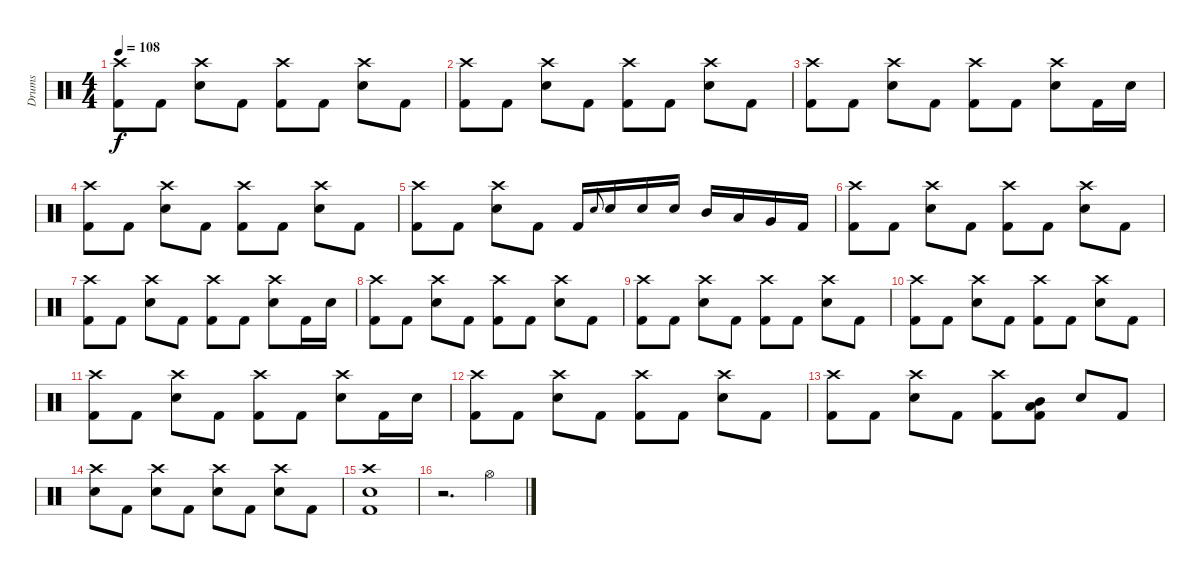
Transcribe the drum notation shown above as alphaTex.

\track ("Drums" "Drums") {instrument percussion}
\staff {score}
\articulation defaults
\ts (4 4)
\tempo 108
\clef neutral
\ks c
("Crash high (hit)" "Kick (hit) 2").8{dy f} "Kick (hit) 2".8 ("Crash high (hit)" "Electric Snare (hit)").8 "Kick (hit) 2".8 ("Crash high (hit)" "Kick (hit) 2").8 "Kick (hit) 2".8 ("Crash high (hit)" "Electric Snare (hit)").8 "Kick (hit) 2".8 |
("Crash high (hit)" "Kick (hit) 2").8 "Kick (hit) 2".8 ("Crash high (hit)" "Electric Snare (hit)").8 "Kick (hit) 2".8 ("Crash high (hit)" "Kick (hit) 2").8 "Kick (hit) 2".8 ("Crash high (hit)" "Electric Snare (hit)").8 "Kick (hit) 2".8 |
("Crash high (hit)" "Kick (hit) 2").8 "Kick (hit) 2".8 ("Crash high (hit)" "Electric Snare (hit)").8 "Kick (hit) 2".8 ("Crash high (hit)" "Kick (hit) 2").8 "Kick (hit) 2".8 ("Crash high (hit)" "Electric Snare (hit)").8 "Kick (hit) 2".16 "Electric Snare (hit)".16 |
("Crash high (hit)" "Kick (hit) 2").8 "Kick (hit) 2".8 ("Crash high (hit)" "Electric Snare (hit)").8 "Kick (hit) 2".8 ("Crash high (hit)" "Kick (hit) 2").8 "Kick (hit) 2".8 ("Crash high (hit)" "Electric Snare (hit)").8 "Kick (hit) 2".8 |
("Crash high (hit)" "Kick (hit) 2").8 "Kick (hit) 2".8 ("Crash high (hit)" "Electric Snare (hit)").8 "Kick (hit) 2".8 "Kick (hit) 2".16 "Electric Snare (hit)".8{gr onbeat} "Electric Snare (hit)".16 "Electric Snare (hit)".16 "Electric Snare (hit)".16 "Mid Tom (hit)".16 "Low Tom (hit)".16 "Very Low Tom (hit)".16 "Kick (hit) 2".16 |
("Crash high (hit)" "Kick (hit) 2").8 "Kick (hit) 2".8 ("Crash high (hit)" "Electric Snare (hit)").8 "Kick (hit) 2".8 ("Crash high (hit)" "Kick (hit) 2").8 "Kick (hit) 2".8 ("Crash high (hit)" "Electric Snare (hit)").8 "Kick (hit) 2".8 |
("Crash high (hit)" "Kick (hit) 2").8 "Kick (hit) 2".8 ("Crash high (hit)" "Electric Snare (hit)").8 "Kick (hit) 2".8 ("Crash high (hit)" "Kick (hit) 2").8 "Kick (hit) 2".8 ("Crash high (hit)" "Electric Snare (hit)").8 "Kick (hit) 2".16 "Electric Snare (hit)".16 |
("Crash high (hit)" "Kick (hit) 2").8 "Kick (hit) 2".8 ("Crash high (hit)" "Electric Snare (hit)").8 "Kick (hit) 2".8 ("Crash high (hit)" "Kick (hit) 2").8 "Kick (hit) 2".8 ("Crash high (hit)" "Electric Snare (hit)").8 "Kick (hit) 2".8 |
("Crash high (hit)" "Kick (hit) 2").8 "Kick (hit) 2".8 ("Crash high (hit)" "Electric Snare (hit)").8 "Kick (hit) 2".8 ("Crash high (hit)" "Kick (hit) 2").8 "Kick (hit) 2".8 ("Crash high (hit)" "Electric Snare (hit)").8 "Kick (hit) 2".8 |
("Crash high (hit)" "Kick (hit) 2").8 "Kick (hit) 2".8 ("Crash high (hit)" "Electric Snare (hit)").8 "Kick (hit) 2".8 ("Crash high (hit)" "Kick (hit) 2").8 "Kick (hit) 2".8 ("Crash high (hit)" "Electric Snare (hit)").8 "Kick (hit) 2".8 |
("Crash high (hit)" "Kick (hit) 2").8 "Kick (hit) 2".8 ("Crash high (hit)" "Electric Snare (hit)").8 "Kick (hit) 2".8 ("Crash high (hit)" "Kick (hit) 2").8 "Kick (hit) 2".8 ("Crash high (hit)" "Electric Snare (hit)").8 "Kick (hit) 2".16 "Electric Snare (hit)".16 |
("Crash high (hit)" "Kick (hit) 2").8 "Kick (hit) 2".8 ("Crash high (hit)" "Electric Snare (hit)").8 "Kick (hit) 2".8 ("Crash high (hit)" "Kick (hit) 2").8 "Kick (hit) 2".8 ("Crash high (hit)" "Electric Snare (hit)").8 "Kick (hit) 2".8 |
("Crash high (hit)" "Kick (hit) 2").8 "Kick (hit) 2".8 ("Crash high (hit)" "Electric Snare (hit)").8 "Kick (hit) 2".8 ("Crash high (hit)" "Kick (hit) 2").8 ("Low Tom (hit)" "Mid Tom (hit)" "Kick (hit) 2").8 "Electric Snare (hit)".8 "Kick (hit) 2".8 |
("Crash high (hit)" "Electric Snare (hit)").8 "Kick (hit) 2".8 ("Crash high (hit)" "Electric Snare (hit)").8 "Kick (hit) 2".8 ("Crash high (hit)" "Electric Snare (hit)").8 "Kick (hit) 2".8 ("Crash high (hit)" "Electric Snare (hit)").8 "Kick (hit) 2".8 |
("Crash high (hit)" "Kick (hit) 2" "Electric Snare (hit)").1 |
r.2{d} "Hi-Hat (open)".4
